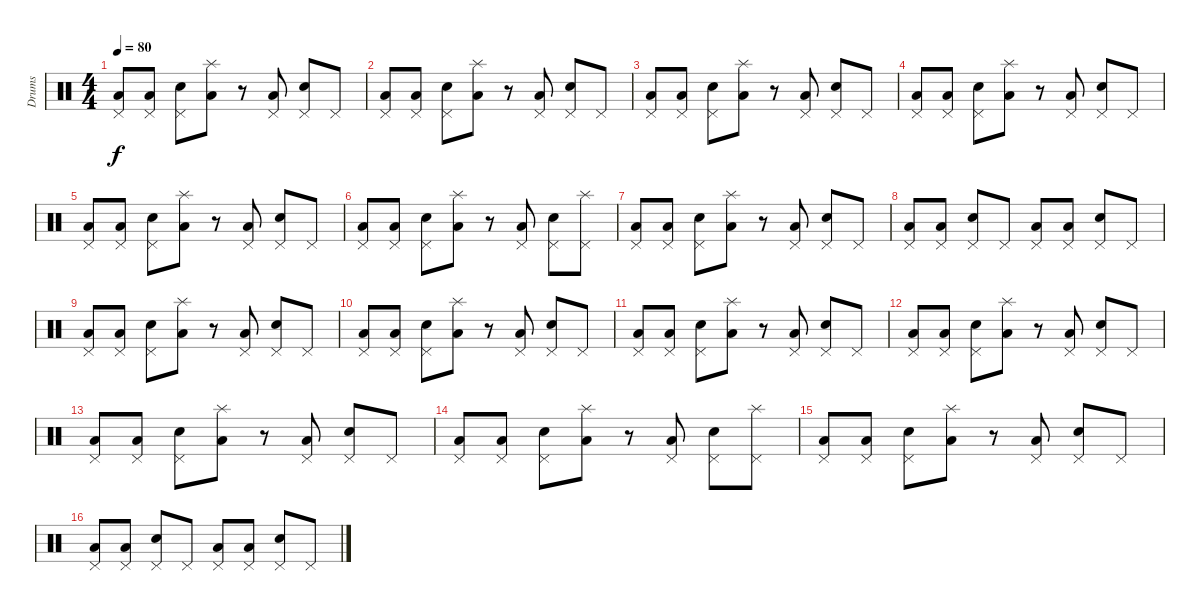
\track ("Drums" "Drums") {instrument percussion}
\staff {score}
\articulation defaults
\ts (4 4)
\tempo 80
\clef neutral
\ks c
("Low Floor Tom (hit)" "Pedal Hi-Hat (hit)").8{dy f} ("Low Floor Tom (hit)" "Pedal Hi-Hat (hit)").8 ("Electric Snare (hit)" "Pedal Hi-Hat (hit)").8 ("Low Floor Tom (hit)" "Splash (hit)").8 r.8 ("Low Floor Tom (hit)" "Pedal Hi-Hat (hit)").8 ("Electric Snare (hit)" "Pedal Hi-Hat (hit)").8 "Pedal Hi-Hat (hit)".8 |
("Low Floor Tom (hit)" "Pedal Hi-Hat (hit)").8 ("Low Floor Tom (hit)" "Pedal Hi-Hat (hit)").8 ("Electric Snare (hit)" "Pedal Hi-Hat (hit)").8 ("Low Floor Tom (hit)" "Splash (hit)").8 r.8 ("Low Floor Tom (hit)" "Pedal Hi-Hat (hit)").8 ("Electric Snare (hit)" "Pedal Hi-Hat (hit)").8 "Pedal Hi-Hat (hit)".8 |
("Low Floor Tom (hit)" "Pedal Hi-Hat (hit)").8 ("Low Floor Tom (hit)" "Pedal Hi-Hat (hit)").8 ("Electric Snare (hit)" "Pedal Hi-Hat (hit)").8 ("Low Floor Tom (hit)" "Splash (hit)").8 r.8 ("Low Floor Tom (hit)" "Pedal Hi-Hat (hit)").8 ("Electric Snare (hit)" "Pedal Hi-Hat (hit)").8 "Pedal Hi-Hat (hit)".8 |
("Low Floor Tom (hit)" "Pedal Hi-Hat (hit)").8 ("Low Floor Tom (hit)" "Pedal Hi-Hat (hit)").8 ("Electric Snare (hit)" "Pedal Hi-Hat (hit)").8 ("Low Floor Tom (hit)" "Splash (hit)").8 r.8 ("Low Floor Tom (hit)" "Pedal Hi-Hat (hit)").8 ("Electric Snare (hit)" "Pedal Hi-Hat (hit)").8 "Pedal Hi-Hat (hit)".8 |
("Low Floor Tom (hit)" "Pedal Hi-Hat (hit)").8 ("Low Floor Tom (hit)" "Pedal Hi-Hat (hit)").8 ("Electric Snare (hit)" "Pedal Hi-Hat (hit)").8 ("Low Floor Tom (hit)" "Splash (hit)").8 r.8 ("Low Floor Tom (hit)" "Pedal Hi-Hat (hit)").8 ("Electric Snare (hit)" "Pedal Hi-Hat (hit)").8 "Pedal Hi-Hat (hit)".8 |
("Low Floor Tom (hit)" "Pedal Hi-Hat (hit)").8 ("Low Floor Tom (hit)" "Pedal Hi-Hat (hit)").8 ("Electric Snare (hit)" "Pedal Hi-Hat (hit)").8 ("Low Floor Tom (hit)" "Splash (hit)").8 r.8 ("Low Floor Tom (hit)" "Pedal Hi-Hat (hit)").8 ("Electric Snare (hit)" "Pedal Hi-Hat (hit)").8 ("Pedal Hi-Hat (hit)" "Splash (hit)").8 |
("Low Floor Tom (hit)" "Pedal Hi-Hat (hit)").8 ("Low Floor Tom (hit)" "Pedal Hi-Hat (hit)").8 ("Electric Snare (hit)" "Pedal Hi-Hat (hit)").8 ("Low Floor Tom (hit)" "Splash (hit)").8 r.8 ("Low Floor Tom (hit)" "Pedal Hi-Hat (hit)").8 ("Electric Snare (hit)" "Pedal Hi-Hat (hit)").8 "Pedal Hi-Hat (hit)".8 |
("Low Floor Tom (hit)" "Pedal Hi-Hat (hit)").8 ("Low Floor Tom (hit)" "Pedal Hi-Hat (hit)").8 ("Electric Snare (hit)" "Pedal Hi-Hat (hit)").8 "Pedal Hi-Hat (hit)".8 ("Low Floor Tom (hit)" "Pedal Hi-Hat (hit)").8 ("Low Floor Tom (hit)" "Pedal Hi-Hat (hit)").8 ("Electric Snare (hit)" "Pedal Hi-Hat (hit)").8 "Pedal Hi-Hat (hit)".8 |
("Low Floor Tom (hit)" "Pedal Hi-Hat (hit)").8 ("Low Floor Tom (hit)" "Pedal Hi-Hat (hit)").8 ("Electric Snare (hit)" "Pedal Hi-Hat (hit)").8 ("Low Floor Tom (hit)" "Splash (hit)").8 r.8 ("Low Floor Tom (hit)" "Pedal Hi-Hat (hit)").8 ("Electric Snare (hit)" "Pedal Hi-Hat (hit)").8 "Pedal Hi-Hat (hit)".8 |
("Low Floor Tom (hit)" "Pedal Hi-Hat (hit)").8 ("Low Floor Tom (hit)" "Pedal Hi-Hat (hit)").8 ("Electric Snare (hit)" "Pedal Hi-Hat (hit)").8 ("Low Floor Tom (hit)" "Splash (hit)").8 r.8 ("Low Floor Tom (hit)" "Pedal Hi-Hat (hit)").8 ("Electric Snare (hit)" "Pedal Hi-Hat (hit)").8 "Pedal Hi-Hat (hit)".8 |
("Low Floor Tom (hit)" "Pedal Hi-Hat (hit)").8 ("Low Floor Tom (hit)" "Pedal Hi-Hat (hit)").8 ("Electric Snare (hit)" "Pedal Hi-Hat (hit)").8 ("Low Floor Tom (hit)" "Splash (hit)").8 r.8 ("Low Floor Tom (hit)" "Pedal Hi-Hat (hit)").8 ("Electric Snare (hit)" "Pedal Hi-Hat (hit)").8 "Pedal Hi-Hat (hit)".8 |
("Low Floor Tom (hit)" "Pedal Hi-Hat (hit)").8 ("Low Floor Tom (hit)" "Pedal Hi-Hat (hit)").8 ("Electric Snare (hit)" "Pedal Hi-Hat (hit)").8 ("Low Floor Tom (hit)" "Splash (hit)").8 r.8 ("Low Floor Tom (hit)" "Pedal Hi-Hat (hit)").8 ("Electric Snare (hit)" "Pedal Hi-Hat (hit)").8 "Pedal Hi-Hat (hit)".8 |
("Low Floor Tom (hit)" "Pedal Hi-Hat (hit)").8 ("Low Floor Tom (hit)" "Pedal Hi-Hat (hit)").8 ("Electric Snare (hit)" "Pedal Hi-Hat (hit)").8 ("Low Floor Tom (hit)" "Splash (hit)").8 r.8 ("Low Floor Tom (hit)" "Pedal Hi-Hat (hit)").8 ("Electric Snare (hit)" "Pedal Hi-Hat (hit)").8 "Pedal Hi-Hat (hit)".8 |
("Low Floor Tom (hit)" "Pedal Hi-Hat (hit)").8 ("Low Floor Tom (hit)" "Pedal Hi-Hat (hit)").8 ("Electric Snare (hit)" "Pedal Hi-Hat (hit)").8 ("Low Floor Tom (hit)" "Splash (hit)").8 r.8 ("Low Floor Tom (hit)" "Pedal Hi-Hat (hit)").8 ("Electric Snare (hit)" "Pedal Hi-Hat (hit)").8 ("Pedal Hi-Hat (hit)" "Splash (hit)").8 |
("Low Floor Tom (hit)" "Pedal Hi-Hat (hit)").8 ("Low Floor Tom (hit)" "Pedal Hi-Hat (hit)").8 ("Electric Snare (hit)" "Pedal Hi-Hat (hit)").8 ("Low Floor Tom (hit)" "Splash (hit)").8 r.8 ("Low Floor Tom (hit)" "Pedal Hi-Hat (hit)").8 ("Electric Snare (hit)" "Pedal Hi-Hat (hit)").8 "Pedal Hi-Hat (hit)".8 |
("Low Floor Tom (hit)" "Pedal Hi-Hat (hit)").8 ("Low Floor Tom (hit)" "Pedal Hi-Hat (hit)").8 ("Electric Snare (hit)" "Pedal Hi-Hat (hit)").8 "Pedal Hi-Hat (hit)".8 ("Low Floor Tom (hit)" "Pedal Hi-Hat (hit)").8 ("Low Floor Tom (hit)" "Pedal Hi-Hat (hit)").8 ("Electric Snare (hit)" "Pedal Hi-Hat (hit)").8 "Pedal Hi-Hat (hit)".8
